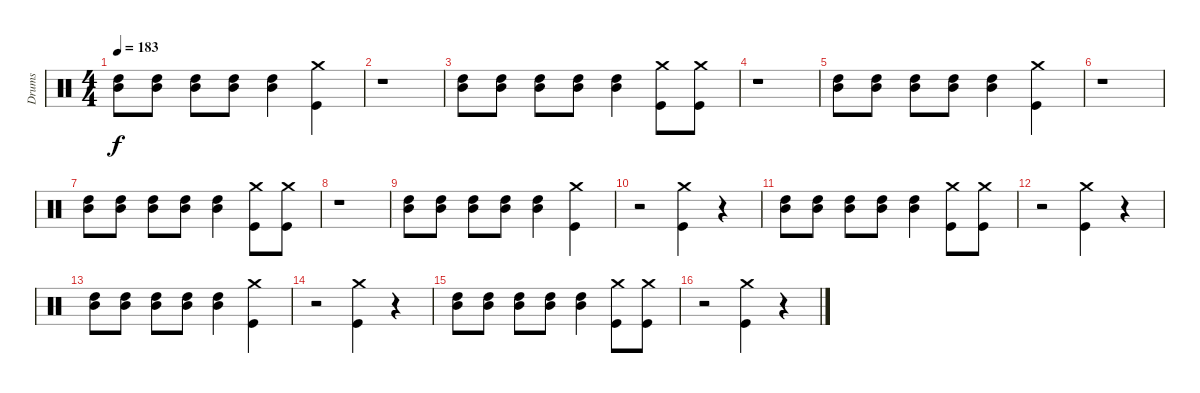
\track ("Drums" "Drums") {instrument percussion}
\staff {score}
\articulation defaults
\ts (4 4)
\tempo 183
\clef neutral
\ks c
("High Tom (hit)" "Mid Tom (hit)").8{dy f} ("High Tom (hit)" "Mid Tom (hit)").8 ("High Tom (hit)" "Mid Tom (hit)").8 ("High Tom (hit)" "Mid Tom (hit)").8 ("High Tom (hit)" "Mid Tom (hit)").4 ("Crash medium (hit)" "Kick (hit)").4 |
r.1 |
("High Tom (hit)" "Mid Tom (hit)").8 ("High Tom (hit)" "Mid Tom (hit)").8 ("High Tom (hit)" "Mid Tom (hit)").8 ("High Tom (hit)" "Mid Tom (hit)").8 ("High Tom (hit)" "Mid Tom (hit)").4 ("Crash medium (hit)" "Kick (hit)").8 ("Kick (hit)" "Crash medium (hit)").8 |
r.1 |
("High Tom (hit)" "Mid Tom (hit)").8 ("High Tom (hit)" "Mid Tom (hit)").8 ("High Tom (hit)" "Mid Tom (hit)").8 ("High Tom (hit)" "Mid Tom (hit)").8 ("High Tom (hit)" "Mid Tom (hit)").4 ("Crash medium (hit)" "Kick (hit)").4 |
r.1 |
("High Tom (hit)" "Mid Tom (hit)").8 ("High Tom (hit)" "Mid Tom (hit)").8 ("High Tom (hit)" "Mid Tom (hit)").8 ("High Tom (hit)" "Mid Tom (hit)").8 ("High Tom (hit)" "Mid Tom (hit)").4 ("Crash medium (hit)" "Kick (hit)").8 ("Kick (hit)" "Crash medium (hit)").8 |
r.1 |
("High Tom (hit)" "Mid Tom (hit)").8 ("High Tom (hit)" "Mid Tom (hit)").8 ("High Tom (hit)" "Mid Tom (hit)").8 ("High Tom (hit)" "Mid Tom (hit)").8 ("High Tom (hit)" "Mid Tom (hit)").4 ("Crash medium (hit)" "Kick (hit)").4 |
r.2 ("Kick (hit)" "Crash medium (hit)").4 r.4 |
("High Tom (hit)" "Mid Tom (hit)").8 ("High Tom (hit)" "Mid Tom (hit)").8 ("High Tom (hit)" "Mid Tom (hit)").8 ("High Tom (hit)" "Mid Tom (hit)").8 ("High Tom (hit)" "Mid Tom (hit)").4 ("Crash medium (hit)" "Kick (hit)").8 ("Kick (hit)" "Crash medium (hit)").8 |
r.2 ("Kick (hit)" "Crash medium (hit)").4 r.4 |
("High Tom (hit)" "Mid Tom (hit)").8 ("High Tom (hit)" "Mid Tom (hit)").8 ("High Tom (hit)" "Mid Tom (hit)").8 ("High Tom (hit)" "Mid Tom (hit)").8 ("High Tom (hit)" "Mid Tom (hit)").4 ("Crash medium (hit)" "Kick (hit)").4 |
r.2 ("Kick (hit)" "Crash medium (hit)").4 r.4 |
("High Tom (hit)" "Mid Tom (hit)").8 ("High Tom (hit)" "Mid Tom (hit)").8 ("High Tom (hit)" "Mid Tom (hit)").8 ("High Tom (hit)" "Mid Tom (hit)").8 ("High Tom (hit)" "Mid Tom (hit)").4 ("Crash medium (hit)" "Kick (hit)").8 ("Kick (hit)" "Crash medium (hit)").8 |
r.2 ("Kick (hit)" "Crash medium (hit)").4 r.4
